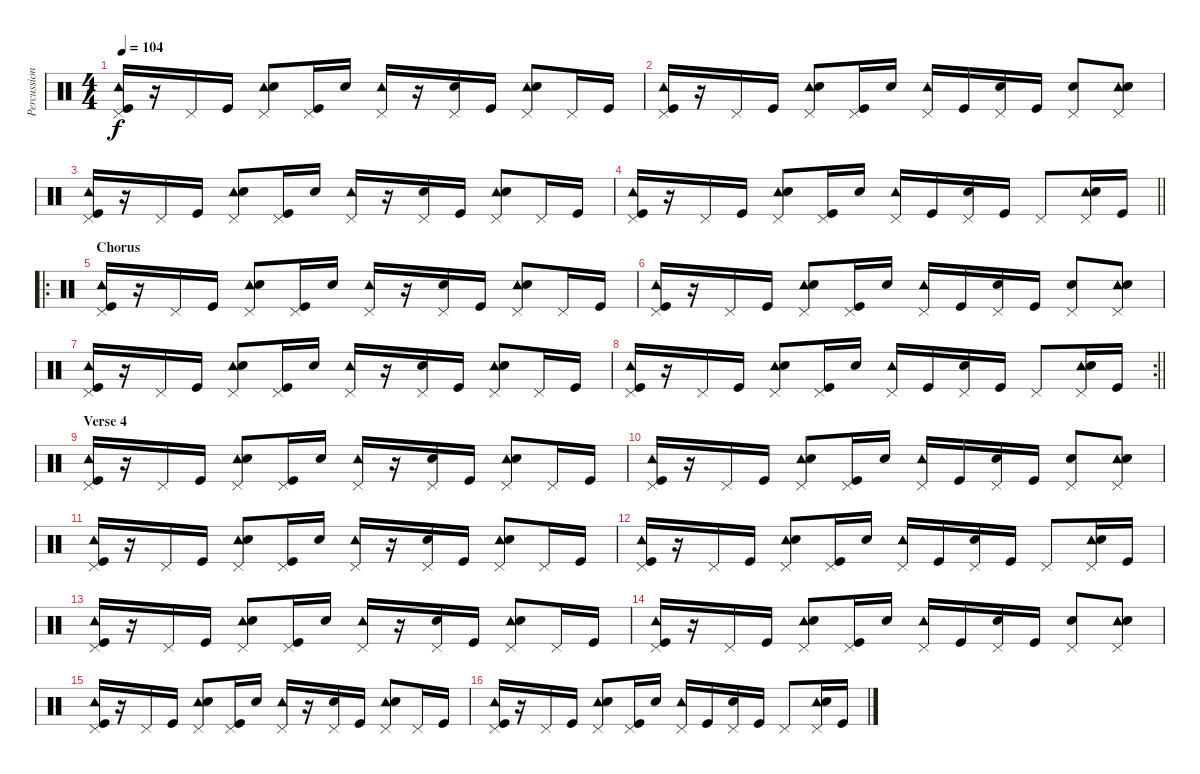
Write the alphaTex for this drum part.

\track ("Percussion" "Percussion") {instrument percussion}
\staff {score}
\articulation defaults
\ts (4 4)
\tempo 104
\clef neutral
\ks c
("Tambourine (hit)" "Pedal Hi-Hat (hit)" "Kick (hit)").16{dy f} r.16 "Pedal Hi-Hat (hit)".16 "Kick (hit)".16 ("Tambourine (hit)" "Pedal Hi-Hat (hit)" "Snare (hit) 2").8 ("Pedal Hi-Hat (hit)" "Kick (hit)").16 "Snare (hit) 2".16 ("Tambourine (hit)" "Pedal Hi-Hat (hit)").16 r.16 ("Pedal Hi-Hat (hit)" "Snare (hit) 2").16 "Kick (hit)".16 ("Tambourine (hit)" "Pedal Hi-Hat (hit)" "Snare (hit) 2").8 "Pedal Hi-Hat (hit)".16 "Kick (hit)".16 |
("Tambourine (hit)" "Pedal Hi-Hat (hit)" "Kick (hit)").16 r.16 "Pedal Hi-Hat (hit)".16 "Kick (hit)".16 ("Tambourine (hit)" "Pedal Hi-Hat (hit)" "Snare (hit) 2").8 ("Pedal Hi-Hat (hit)" "Kick (hit)").16 "Snare (hit) 2".16 ("Tambourine (hit)" "Pedal Hi-Hat (hit)").16 "Kick (hit)".16 ("Pedal Hi-Hat (hit)" "Snare (hit) 2").16 "Kick (hit)".16 ("Pedal Hi-Hat (hit)" "Snare (hit) 2").8 ("Tambourine (hit)" "Pedal Hi-Hat (hit)" "Snare (hit) 2").8 |
("Tambourine (hit)" "Pedal Hi-Hat (hit)" "Kick (hit)").16 r.16 "Pedal Hi-Hat (hit)".16 "Kick (hit)".16 ("Tambourine (hit)" "Pedal Hi-Hat (hit)" "Snare (hit) 2").8 ("Pedal Hi-Hat (hit)" "Kick (hit)").16 "Snare (hit) 2".16 ("Tambourine (hit)" "Pedal Hi-Hat (hit)").16 r.16 ("Pedal Hi-Hat (hit)" "Snare (hit) 2").16 "Kick (hit)".16 ("Tambourine (hit)" "Pedal Hi-Hat (hit)" "Snare (hit) 2").8 "Pedal Hi-Hat (hit)".16 "Kick (hit)".16 |
\barLineRight lightlight
("Tambourine (hit)" "Pedal Hi-Hat (hit)" "Kick (hit)").16 r.16 "Pedal Hi-Hat (hit)".16 "Kick (hit)".16 ("Tambourine (hit)" "Pedal Hi-Hat (hit)" "Snare (hit) 2").8 ("Pedal Hi-Hat (hit)" "Kick (hit)").16 "Snare (hit) 2".16 ("Tambourine (hit)" "Pedal Hi-Hat (hit)").16 "Kick (hit)".16 ("Pedal Hi-Hat (hit)" "Snare (hit) 2").16 "Kick (hit)".16 "Pedal Hi-Hat (hit)".8 ("Tambourine (hit)" "Pedal Hi-Hat (hit)" "Snare (hit) 2").16 "Kick (hit)".16 |
\ro
\section ("" "Chorus")
("Tambourine (hit)" "Pedal Hi-Hat (hit)" "Kick (hit)").16 r.16 "Pedal Hi-Hat (hit)".16 "Kick (hit)".16 ("Tambourine (hit)" "Pedal Hi-Hat (hit)" "Snare (hit) 2").8 ("Pedal Hi-Hat (hit)" "Kick (hit)").16 "Snare (hit) 2".16 ("Tambourine (hit)" "Pedal Hi-Hat (hit)").16 r.16 ("Pedal Hi-Hat (hit)" "Snare (hit) 2").16 "Kick (hit)".16 ("Tambourine (hit)" "Pedal Hi-Hat (hit)" "Snare (hit) 2").8 "Pedal Hi-Hat (hit)".16 "Kick (hit)".16 |
("Tambourine (hit)" "Pedal Hi-Hat (hit)" "Kick (hit)").16 r.16 "Pedal Hi-Hat (hit)".16 "Kick (hit)".16 ("Tambourine (hit)" "Pedal Hi-Hat (hit)" "Snare (hit) 2").8 ("Pedal Hi-Hat (hit)" "Kick (hit)").16 "Snare (hit) 2".16 ("Tambourine (hit)" "Pedal Hi-Hat (hit)").16 "Kick (hit)".16 ("Pedal Hi-Hat (hit)" "Snare (hit) 2").16 "Kick (hit)".16 ("Pedal Hi-Hat (hit)" "Snare (hit) 2").8 ("Tambourine (hit)" "Pedal Hi-Hat (hit)" "Snare (hit) 2").8 |
("Tambourine (hit)" "Pedal Hi-Hat (hit)" "Kick (hit)").16 r.16 "Pedal Hi-Hat (hit)".16 "Kick (hit)".16 ("Tambourine (hit)" "Pedal Hi-Hat (hit)" "Snare (hit) 2").8 ("Pedal Hi-Hat (hit)" "Kick (hit)").16 "Snare (hit) 2".16 ("Tambourine (hit)" "Pedal Hi-Hat (hit)").16 r.16 ("Pedal Hi-Hat (hit)" "Snare (hit) 2").16 "Kick (hit)".16 ("Tambourine (hit)" "Pedal Hi-Hat (hit)" "Snare (hit) 2").8 "Pedal Hi-Hat (hit)".16 "Kick (hit)".16 |
\rc 2
\barLineRight lightlight
("Tambourine (hit)" "Pedal Hi-Hat (hit)" "Kick (hit)").16 r.16 "Pedal Hi-Hat (hit)".16 "Kick (hit)".16 ("Tambourine (hit)" "Pedal Hi-Hat (hit)" "Snare (hit) 2").8 ("Pedal Hi-Hat (hit)" "Kick (hit)").16 "Snare (hit) 2".16 ("Tambourine (hit)" "Pedal Hi-Hat (hit)").16 "Kick (hit)".16 ("Pedal Hi-Hat (hit)" "Snare (hit) 2").16 "Kick (hit)".16 "Pedal Hi-Hat (hit)".8 ("Tambourine (hit)" "Pedal Hi-Hat (hit)" "Snare (hit) 2").16 "Kick (hit)".16 |
\section ("" "Verse 4")
("Tambourine (hit)" "Pedal Hi-Hat (hit)" "Kick (hit)").16 r.16 "Pedal Hi-Hat (hit)".16 "Kick (hit)".16 ("Tambourine (hit)" "Pedal Hi-Hat (hit)" "Snare (hit) 2").8 ("Pedal Hi-Hat (hit)" "Kick (hit)").16 "Snare (hit) 2".16 ("Tambourine (hit)" "Pedal Hi-Hat (hit)").16 r.16 ("Pedal Hi-Hat (hit)" "Snare (hit) 2").16 "Kick (hit)".16 ("Tambourine (hit)" "Pedal Hi-Hat (hit)" "Snare (hit) 2").8 "Pedal Hi-Hat (hit)".16 "Kick (hit)".16 |
("Tambourine (hit)" "Pedal Hi-Hat (hit)" "Kick (hit)").16 r.16 "Pedal Hi-Hat (hit)".16 "Kick (hit)".16 ("Tambourine (hit)" "Pedal Hi-Hat (hit)" "Snare (hit) 2").8 ("Pedal Hi-Hat (hit)" "Kick (hit)").16 "Snare (hit) 2".16 ("Tambourine (hit)" "Pedal Hi-Hat (hit)").16 "Kick (hit)".16 ("Pedal Hi-Hat (hit)" "Snare (hit) 2").16 "Kick (hit)".16 ("Pedal Hi-Hat (hit)" "Snare (hit) 2").8 ("Tambourine (hit)" "Pedal Hi-Hat (hit)" "Snare (hit) 2").8 |
("Tambourine (hit)" "Pedal Hi-Hat (hit)" "Kick (hit)").16 r.16 "Pedal Hi-Hat (hit)".16 "Kick (hit)".16 ("Tambourine (hit)" "Pedal Hi-Hat (hit)" "Snare (hit) 2").8 ("Pedal Hi-Hat (hit)" "Kick (hit)").16 "Snare (hit) 2".16 ("Tambourine (hit)" "Pedal Hi-Hat (hit)").16 r.16 ("Pedal Hi-Hat (hit)" "Snare (hit) 2").16 "Kick (hit)".16 ("Tambourine (hit)" "Pedal Hi-Hat (hit)" "Snare (hit) 2").8 "Pedal Hi-Hat (hit)".16 "Kick (hit)".16 |
("Tambourine (hit)" "Pedal Hi-Hat (hit)" "Kick (hit)").16 r.16 "Pedal Hi-Hat (hit)".16 "Kick (hit)".16 ("Tambourine (hit)" "Pedal Hi-Hat (hit)" "Snare (hit) 2").8 ("Pedal Hi-Hat (hit)" "Kick (hit)").16 "Snare (hit) 2".16 ("Tambourine (hit)" "Pedal Hi-Hat (hit)").16 "Kick (hit)".16 ("Pedal Hi-Hat (hit)" "Snare (hit) 2").16 "Kick (hit)".16 "Pedal Hi-Hat (hit)".8 ("Tambourine (hit)" "Pedal Hi-Hat (hit)" "Snare (hit) 2").16 "Kick (hit)".16 |
("Tambourine (hit)" "Pedal Hi-Hat (hit)" "Kick (hit)").16 r.16 "Pedal Hi-Hat (hit)".16 "Kick (hit)".16 ("Tambourine (hit)" "Pedal Hi-Hat (hit)" "Snare (hit) 2").8 ("Pedal Hi-Hat (hit)" "Kick (hit)").16 "Snare (hit) 2".16 ("Tambourine (hit)" "Pedal Hi-Hat (hit)").16 r.16 ("Pedal Hi-Hat (hit)" "Snare (hit) 2").16 "Kick (hit)".16 ("Tambourine (hit)" "Pedal Hi-Hat (hit)" "Snare (hit) 2").8 "Pedal Hi-Hat (hit)".16 "Kick (hit)".16 |
("Tambourine (hit)" "Pedal Hi-Hat (hit)" "Kick (hit)").16 r.16 "Pedal Hi-Hat (hit)".16 "Kick (hit)".16 ("Tambourine (hit)" "Pedal Hi-Hat (hit)" "Snare (hit) 2").8 ("Pedal Hi-Hat (hit)" "Kick (hit)").16 "Snare (hit) 2".16 ("Tambourine (hit)" "Pedal Hi-Hat (hit)").16 "Kick (hit)".16 ("Pedal Hi-Hat (hit)" "Snare (hit) 2").16 "Kick (hit)".16 ("Pedal Hi-Hat (hit)" "Snare (hit) 2").8 ("Tambourine (hit)" "Pedal Hi-Hat (hit)" "Snare (hit) 2").8 |
("Tambourine (hit)" "Pedal Hi-Hat (hit)" "Kick (hit)").16 r.16 "Pedal Hi-Hat (hit)".16 "Kick (hit)".16 ("Tambourine (hit)" "Pedal Hi-Hat (hit)" "Snare (hit) 2").8 ("Pedal Hi-Hat (hit)" "Kick (hit)").16 "Snare (hit) 2".16 ("Tambourine (hit)" "Pedal Hi-Hat (hit)").16 r.16 ("Pedal Hi-Hat (hit)" "Snare (hit) 2").16 "Kick (hit)".16 ("Tambourine (hit)" "Pedal Hi-Hat (hit)" "Snare (hit) 2").8 "Pedal Hi-Hat (hit)".16 "Kick (hit)".16 |
("Tambourine (hit)" "Pedal Hi-Hat (hit)" "Kick (hit)").16 r.16 "Pedal Hi-Hat (hit)".16 "Kick (hit)".16 ("Tambourine (hit)" "Pedal Hi-Hat (hit)" "Snare (hit) 2").8 ("Pedal Hi-Hat (hit)" "Kick (hit)").16 "Snare (hit) 2".16 ("Tambourine (hit)" "Pedal Hi-Hat (hit)").16 "Kick (hit)".16 ("Pedal Hi-Hat (hit)" "Snare (hit) 2").16 "Kick (hit)".16 "Pedal Hi-Hat (hit)".8 ("Tambourine (hit)" "Pedal Hi-Hat (hit)" "Snare (hit) 2").16 "Kick (hit)".16
